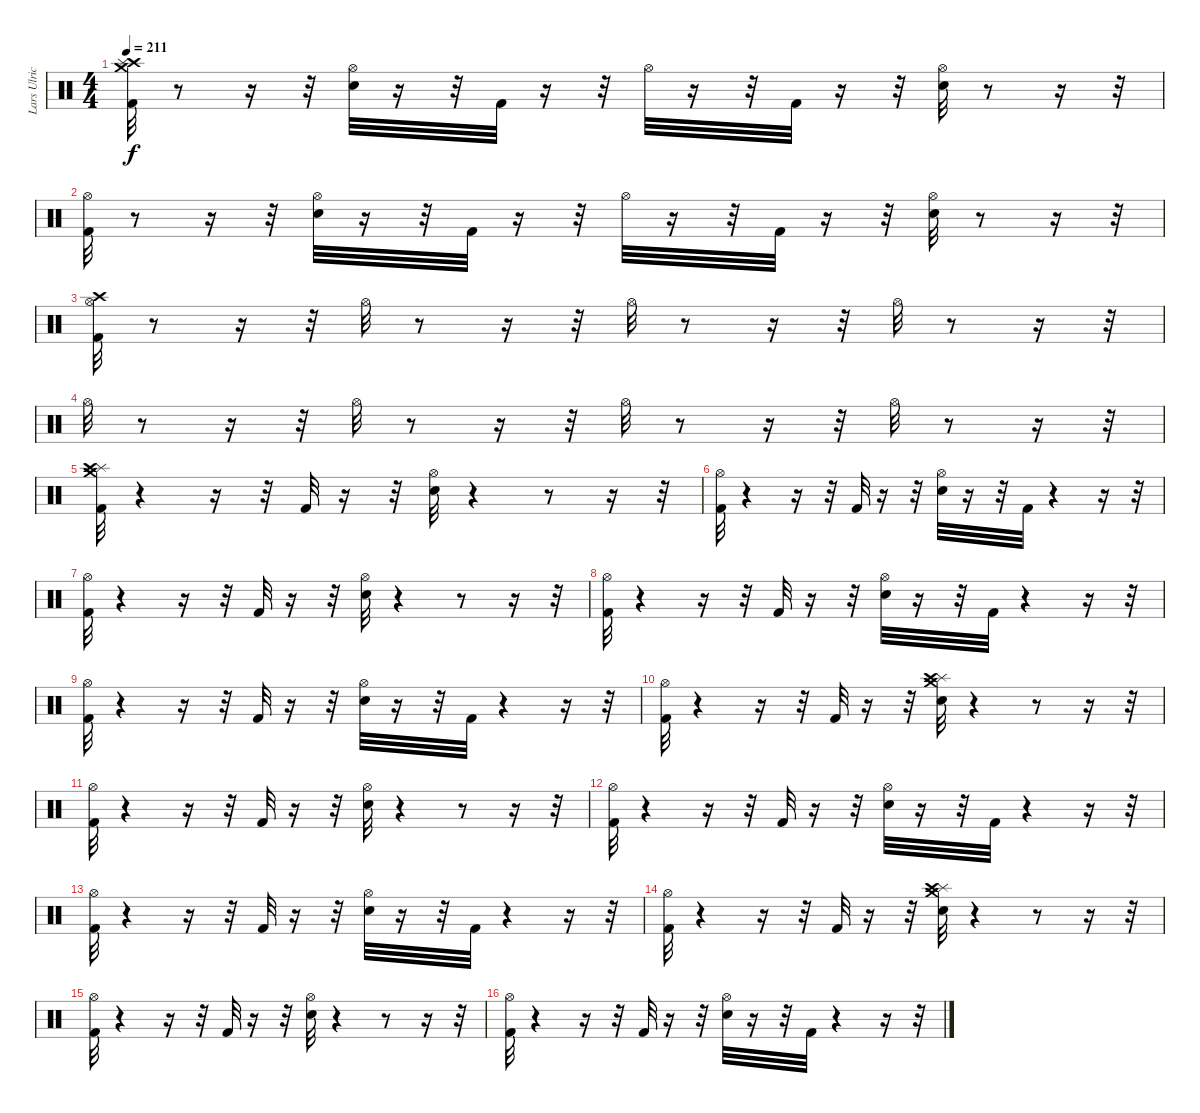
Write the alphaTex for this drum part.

\track ("Lars Ulrich (Drums)" "Lars Ulric") {instrument percussion}
\staff {score}
\articulation defaults
\ts (4 4)
\tempo 211
\clef neutral
\ks c
("Kick (hit) 2" "Crash high (hit)" "Crash medium (hit)" "Splash (hit)").32{dy f} r.8 r.16 r.32 ("Snare (hit) 2" "Hi-Hat (open)").32 r.16 r.32 "Kick (hit) 2".32 r.16 r.32 "Hi-Hat (open)".32 r.16 r.32 "Kick (hit) 2".32 r.16 r.32 ("Snare (hit) 2" "Hi-Hat (open)").32 r.8 r.16 r.32 |
("Kick (hit) 2" "Hi-Hat (open)").32 r.8 r.16 r.32 ("Snare (hit) 2" "Hi-Hat (open)").32 r.16 r.32 "Kick (hit) 2".32 r.16 r.32 "Hi-Hat (open)".32 r.16 r.32 "Kick (hit) 2".32 r.16 r.32 ("Snare (hit) 2" "Hi-Hat (open)").32 r.8 r.16 r.32 |
("Hi-Hat (open)" "Crash high (hit)" "Kick (hit) 2").32 r.8 r.16 r.32 "Hi-Hat (open)".32 r.8 r.16 r.32 "Hi-Hat (open)".32 r.8 r.16 r.32 "Hi-Hat (open)".32 r.8 r.16 r.32 |
"Hi-Hat (open)".32 r.8 r.16 r.32 "Hi-Hat (open)".32 r.8 r.16 r.32 "Hi-Hat (open)".32 r.8 r.16 r.32 "Hi-Hat (open)".32 r.8 r.16 r.32 |
("Crash medium (hit)" "Splash (hit)" "Crash high (hit)" "Kick (hit) 2").32 r.4 r.16 r.32 "Kick (hit) 2".32 r.16 r.32 ("Snare (hit) 2" "Hi-Hat (open)").32 r.4 r.8 r.16 r.32 |
("Kick (hit) 2" "Hi-Hat (open)").32 r.4 r.16 r.32 "Kick (hit) 2".32 r.16 r.32 ("Snare (hit) 2" "Hi-Hat (open)").32 r.16 r.32 "Kick (hit) 2".32 r.4 r.16 r.32 |
("Kick (hit) 2" "Hi-Hat (open)").32 r.4 r.16 r.32 "Kick (hit) 2".32 r.16 r.32 ("Snare (hit) 2" "Hi-Hat (open)").32 r.4 r.8 r.16 r.32 |
("Kick (hit) 2" "Hi-Hat (open)").32 r.4 r.16 r.32 "Kick (hit) 2".32 r.16 r.32 ("Snare (hit) 2" "Hi-Hat (open)").32 r.16 r.32 "Kick (hit) 2".32 r.4 r.16 r.32 |
("Kick (hit) 2" "Hi-Hat (open)").32 r.4 r.16 r.32 "Kick (hit) 2".32 r.16 r.32 ("Snare (hit) 2" "Hi-Hat (open)").32 r.16 r.32 "Kick (hit) 2".32 r.4 r.16 r.32 |
("Kick (hit) 2" "Hi-Hat (open)").32 r.4 r.16 r.32 "Kick (hit) 2".32 r.16 r.32 ("Splash (hit)" "Crash medium (hit)" "Crash high (hit)" "Snare (hit) 2").32 r.4 r.8 r.16 r.32 |
("Kick (hit) 2" "Hi-Hat (open)").32 r.4 r.16 r.32 "Kick (hit) 2".32 r.16 r.32 ("Snare (hit) 2" "Hi-Hat (open)").32 r.4 r.8 r.16 r.32 |
("Kick (hit) 2" "Hi-Hat (open)").32 r.4 r.16 r.32 "Kick (hit) 2".32 r.16 r.32 ("Snare (hit) 2" "Hi-Hat (open)").32 r.16 r.32 "Kick (hit) 2".32 r.4 r.16 r.32 |
("Kick (hit) 2" "Hi-Hat (open)").32 r.4 r.16 r.32 "Kick (hit) 2".32 r.16 r.32 ("Snare (hit) 2" "Hi-Hat (open)").32 r.16 r.32 "Kick (hit) 2".32 r.4 r.16 r.32 |
("Kick (hit) 2" "Hi-Hat (open)").32 r.4 r.16 r.32 "Kick (hit) 2".32 r.16 r.32 ("Splash (hit)" "Crash medium (hit)" "Crash high (hit)" "Snare (hit) 2").32 r.4 r.8 r.16 r.32 |
("Kick (hit) 2" "Hi-Hat (open)").32 r.4 r.16 r.32 "Kick (hit) 2".32 r.16 r.32 ("Snare (hit) 2" "Hi-Hat (open)").32 r.4 r.8 r.16 r.32 |
("Kick (hit) 2" "Hi-Hat (open)").32 r.4 r.16 r.32 "Kick (hit) 2".32 r.16 r.32 ("Snare (hit) 2" "Hi-Hat (open)").32 r.16 r.32 "Kick (hit) 2".32 r.4 r.16 r.32
